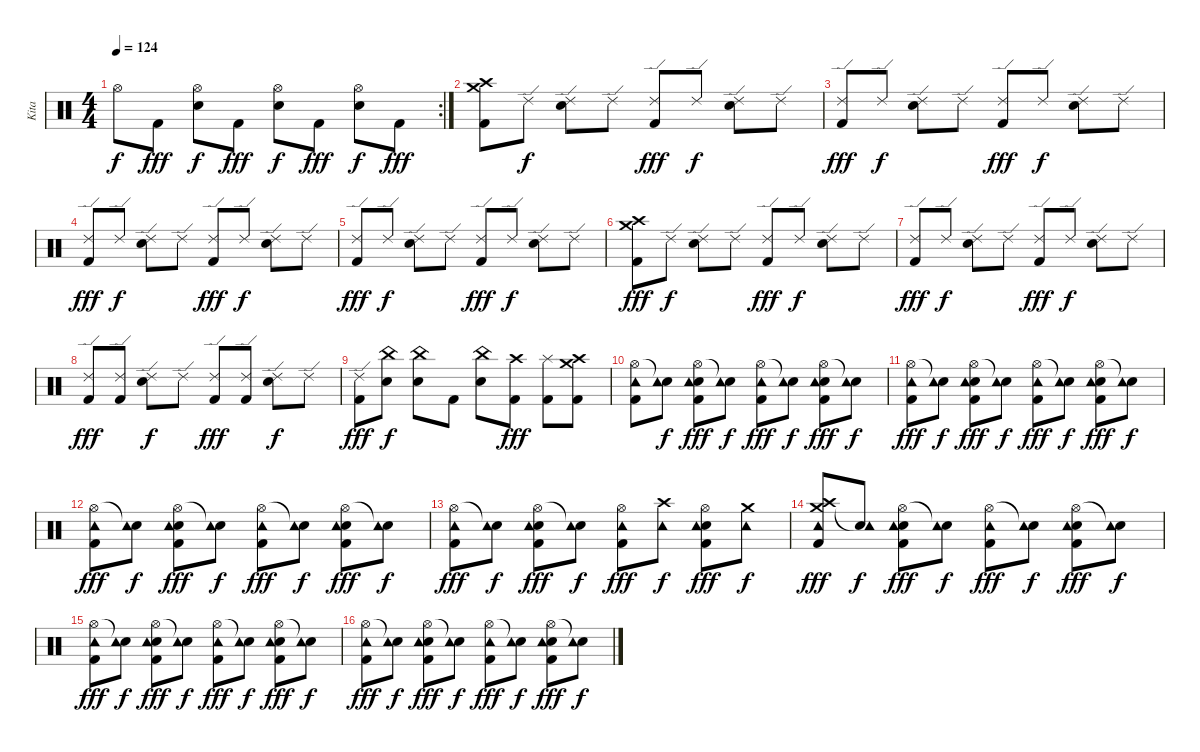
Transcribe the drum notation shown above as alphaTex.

\track ("Kita" "Kita") {instrument percussion}
\staff {score}
\articulation defaults
\rc 2
\ts (4 4)
\tempo 124
\clef neutral
\ks c "Hi-Hat (open)".8{dy f} "Kick (hit) 2".8{dy fff}
("Hi-Hat (open)" "Electric Snare (hit)").8{dy f} "Kick (hit) 2".8{dy fff} ("Hi-Hat (open)" "Electric Snare (hit)").8{dy f} "Kick (hit) 2".8{dy fff} ("Hi-Hat (open)" "Electric Snare (hit)").8{dy f} "Kick (hit) 2".8{dy fff} |
("Crash high (hit)" "Kick (hit) 2" "Crash medium (hit)").8 "Ride (edge) 2".8{dy f} ("Ride (edge) 2" "Electric Snare (hit)").8 "Ride (edge) 2".8 ("Ride (edge) 2" "Kick (hit) 2").8{dy fff} "Ride (edge) 2".8{dy f} ("Ride (edge) 2" "Electric Snare (hit)").8 "Ride (edge) 2".8 |
("Ride (edge) 2" "Kick (hit) 2").8{dy fff} "Ride (edge) 2".8{dy f} ("Ride (edge) 2" "Electric Snare (hit)").8 "Ride (edge) 2".8 ("Ride (edge) 2" "Kick (hit) 2").8{dy fff} "Ride (edge) 2".8{dy f} ("Ride (edge) 2" "Electric Snare (hit)").8 "Ride (edge) 2".8 |
("Ride (edge) 2" "Kick (hit) 2").8{dy fff} "Ride (edge) 2".8{dy f} ("Ride (edge) 2" "Electric Snare (hit)").8 "Ride (edge) 2".8 ("Ride (edge) 2" "Kick (hit) 2").8{dy fff} "Ride (edge) 2".8{dy f} ("Ride (edge) 2" "Electric Snare (hit)").8 "Ride (edge) 2".8 |
("Ride (edge) 2" "Kick (hit) 2").8{dy fff} "Ride (edge) 2".8{dy f} ("Ride (edge) 2" "Electric Snare (hit)").8 "Ride (edge) 2".8 ("Ride (edge) 2" "Kick (hit) 2").8{dy fff} "Ride (edge) 2".8{dy f} ("Ride (edge) 2" "Electric Snare (hit)").8 "Ride (edge) 2".8 |
("Crash high (hit)" "Kick (hit) 2" "Crash medium (hit)").8{dy fff} "Ride (edge) 2".8{dy f} ("Ride (edge) 2" "Electric Snare (hit)").8 "Ride (edge) 2".8 ("Ride (edge) 2" "Kick (hit) 2").8{dy fff} "Ride (edge) 2".8{dy f} ("Ride (edge) 2" "Electric Snare (hit)").8 "Ride (edge) 2".8 |
("Ride (edge) 2" "Kick (hit) 2").8{dy fff} "Ride (edge) 2".8{dy f} ("Ride (edge) 2" "Electric Snare (hit)").8 "Ride (edge) 2".8 ("Ride (edge) 2" "Kick (hit) 2").8{dy fff} "Ride (edge) 2".8{dy f} ("Ride (edge) 2" "Electric Snare (hit)").8 "Ride (edge) 2".8 |
("Ride (edge) 2" "Kick (hit) 2").8{dy fff} ("Ride (edge) 2" "Kick (hit) 2").8 ("Ride (edge) 2" "Electric Snare (hit)").8{dy f} "Ride (edge) 2".8 ("Ride (edge) 2" "Kick (hit) 2").8{dy fff} ("Ride (edge) 2" "Kick (hit) 2").8 ("Ride (edge) 2" "Electric Snare (hit)").8{dy f} "Ride (edge) 2".8 |
("Ride (edge) 2" "Kick (hit) 2").8{dy fff} ("Electric Snare (hit)" "China (hit)").8{dy f} ("Electric Snare (hit)" "China (hit)").8 "Kick (hit) 2".8 ("Electric Snare (hit)" "China (hit)").8 ("Crash high (hit)" "Kick (hit) 2").8{dy fff} ("Splash (hit)" "Kick (hit) 2").8 ("Crash medium (hit)" "Kick (hit) 2" "Crash high (hit)").8 |
("Hi-Hat (open)" "Kick (hit) 2" "Tambourine (hit)").8 ("Snare (hit)"{t} "Tambourine (hit)").8{dy f} ("Hi-Hat (open)" "Kick (hit) 2" "Electric Snare (hit)" "Tambourine (hit)").8{dy fff} ("Snare (hit)"{t} "Tambourine (hit)").8{dy f} ("Hi-Hat (open)" "Kick (hit) 2" "Tambourine (hit)").8{dy fff} ("Snare (hit)"{t} "Tambourine (hit)").8{dy f} ("Hi-Hat (open)" "Kick (hit) 2" "Electric Snare (hit)" "Tambourine (hit)").8{dy fff} ("Snare (hit)"{t} "Tambourine (hit)").8{dy f} |
("Hi-Hat (open)" "Kick (hit) 2" "Tambourine (hit)").8{dy fff} ("Snare (hit)"{t} "Tambourine (hit)").8{dy f} ("Hi-Hat (open)" "Kick (hit) 2" "Electric Snare (hit)" "Tambourine (hit)").8{dy fff} ("Snare (hit)"{t} "Tambourine (hit)").8{dy f} ("Hi-Hat (open)" "Kick (hit) 2" "Tambourine (hit)").8{dy fff} ("Snare (hit)"{t} "Tambourine (hit)").8{dy f} ("Hi-Hat (open)" "Kick (hit) 2" "Electric Snare (hit)" "Tambourine (hit)").8{dy fff} ("Snare (hit)"{t} "Tambourine (hit)").8{dy f} |
("Hi-Hat (open)" "Kick (hit) 2" "Tambourine (hit)").8{dy fff} ("Snare (hit)"{t} "Tambourine (hit)").8{dy f} ("Hi-Hat (open)" "Kick (hit) 2" "Electric Snare (hit)" "Tambourine (hit)").8{dy fff} ("Snare (hit)"{t} "Tambourine (hit)").8{dy f} ("Hi-Hat (open)" "Kick (hit) 2" "Tambourine (hit)").8{dy fff} ("Snare (hit)"{t} "Tambourine (hit)").8{dy f} ("Hi-Hat (open)" "Kick (hit) 2" "Electric Snare (hit)" "Tambourine (hit)").8{dy fff} ("Snare (hit)"{t} "Tambourine (hit)").8{dy f} |
("Hi-Hat (open)" "Kick (hit) 2" "Tambourine (hit)").8{dy fff} ("Snare (hit)"{t} "Tambourine (hit)").8{dy f} ("Hi-Hat (open)" "Kick (hit) 2" "Electric Snare (hit)" "Tambourine (hit)").8{dy fff} ("Snare (hit)"{t} "Tambourine (hit)").8{dy f} ("Hi-Hat (open)" "Kick (hit) 2" "Tambourine (hit)").8{dy fff} ("Crash high (hit)" "Tambourine (hit)").8{dy f} ("Hi-Hat (open)" "Kick (hit) 2" "Electric Snare (hit)" "Tambourine (hit)").8{dy fff} ("Crash medium (hit)" "Tambourine (hit)").8{dy f} |
("Crash high (hit)" "Kick (hit) 2" "Crash medium (hit)" "Tambourine (hit)").8{dy fff} ("Snare (hit)"{t} "Tambourine (hit)").8{dy f} ("Hi-Hat (open)" "Kick (hit) 2" "Electric Snare (hit)" "Tambourine (hit)").8{dy fff} ("Snare (hit)"{t} "Tambourine (hit)").8{dy f} ("Hi-Hat (open)" "Kick (hit) 2" "Tambourine (hit)").8{dy fff} ("Snare (hit)"{t} "Tambourine (hit)").8{dy f} ("Hi-Hat (open)" "Kick (hit) 2" "Electric Snare (hit)" "Tambourine (hit)").8{dy fff} ("Snare (hit)"{t} "Tambourine (hit)").8{dy f} |
("Hi-Hat (open)" "Kick (hit) 2" "Tambourine (hit)").8{dy fff} ("Snare (hit)"{t} "Tambourine (hit)").8{dy f} ("Hi-Hat (open)" "Kick (hit) 2" "Electric Snare (hit)" "Tambourine (hit)").8{dy fff} ("Snare (hit)"{t} "Tambourine (hit)").8{dy f} ("Hi-Hat (open)" "Kick (hit) 2" "Tambourine (hit)").8{dy fff} ("Snare (hit)"{t} "Tambourine (hit)").8{dy f} ("Hi-Hat (open)" "Kick (hit) 2" "Electric Snare (hit)" "Tambourine (hit)").8{dy fff} ("Snare (hit)"{t} "Tambourine (hit)").8{dy f} |
("Hi-Hat (open)" "Kick (hit) 2" "Tambourine (hit)").8{dy fff} ("Snare (hit)"{t} "Tambourine (hit)").8{dy f} ("Hi-Hat (open)" "Kick (hit) 2" "Electric Snare (hit)" "Tambourine (hit)").8{dy fff} ("Snare (hit)"{t} "Tambourine (hit)").8{dy f} ("Hi-Hat (open)" "Kick (hit) 2" "Tambourine (hit)").8{dy fff} ("Snare (hit)"{t} "Tambourine (hit)").8{dy f} ("Hi-Hat (open)" "Kick (hit) 2" "Electric Snare (hit)" "Tambourine (hit)").8{dy fff} ("Snare (hit)"{t} "Tambourine (hit)").8{dy f}
